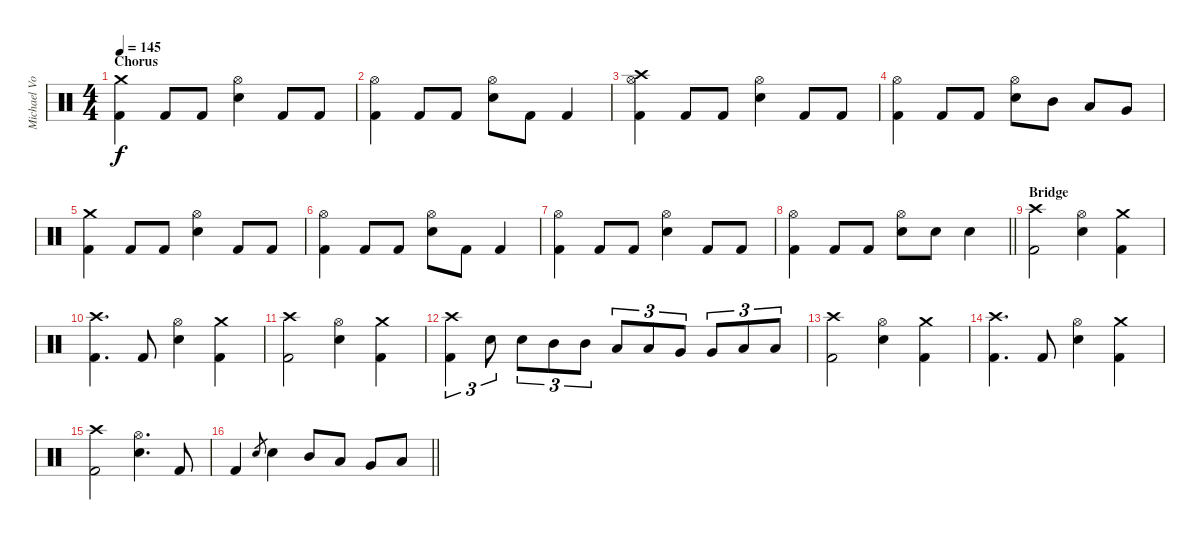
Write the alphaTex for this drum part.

\track ("Michael Von Knorring" "Michael Vo") {instrument percussion}
\staff {score}
\articulation defaults
\ts (4 4)
\section ("" "Chorus")
\tempo 145
\clef neutral
\ks c
("Crash medium (hit)" "Kick (hit) 2").4{dy f} "Kick (hit) 2".8 "Kick (hit) 2".8 ("Hi-Hat (open)" "Snare (hit) 2").4 "Kick (hit) 2".8 "Kick (hit) 2".8 |
("Hi-Hat (open)" "Kick (hit) 2").4 "Kick (hit) 2".8 "Kick (hit) 2".8 ("Hi-Hat (open)" "Snare (hit) 2").8 "Kick (hit) 2".8 "Kick (hit) 2".4 |
("Crash high (hit)" "Hi-Hat (open)" "Kick (hit) 2").4 "Kick (hit) 2".8 "Kick (hit) 2".8 ("Hi-Hat (open)" "Snare (hit) 2").4 "Kick (hit) 2".8 "Kick (hit) 2".8 |
("Hi-Hat (open)" "Kick (hit) 2").4 "Kick (hit) 2".8 "Kick (hit) 2".8 ("Hi-Hat (open)" "Snare (hit) 2").8 "Mid Tom (hit)".8 "Low Tom (hit)".8 "Very Low Tom (hit)".8 |
("Crash medium (hit)" "Kick (hit) 2").4 "Kick (hit) 2".8 "Kick (hit) 2".8 ("Hi-Hat (open)" "Snare (hit) 2").4 "Kick (hit) 2".8 "Kick (hit) 2".8 |
("Hi-Hat (open)" "Kick (hit) 2").4 "Kick (hit) 2".8 "Kick (hit) 2".8 ("Hi-Hat (open)" "Snare (hit) 2").8 "Kick (hit) 2".8 "Kick (hit) 2".4 |
("Hi-Hat (open)" "Kick (hit) 2").4 "Kick (hit) 2".8 "Kick (hit) 2".8 ("Hi-Hat (open)" "Snare (hit) 2").4 "Kick (hit) 2".8 "Kick (hit) 2".8 |
\barLineRight lightlight
("Hi-Hat (open)" "Kick (hit) 2").4 "Kick (hit) 2".8 "Kick (hit) 2".8 ("Hi-Hat (open)" "Snare (hit) 2").8 "Snare (hit) 2".8 "Snare (hit) 2".4 |
\section ("" "Bridge")
("Crash high (hit)" "Kick (hit) 2").2 ("Hi-Hat (open)" "Snare (hit) 2").4 ("Crash medium (hit)" "Kick (hit) 2").4 |
("Crash high (hit)" "Kick (hit) 2").4{d} "Kick (hit) 2".8 ("Hi-Hat (open)" "Snare (hit) 2").4 ("Crash medium (hit)" "Kick (hit) 2").4 |
("Crash high (hit)" "Kick (hit) 2").2 ("Hi-Hat (open)" "Snare (hit) 2").4 ("Crash medium (hit)" "Kick (hit) 2").4 |
("Crash high (hit)" "Kick (hit) 2").4{tu (3 2)} "Snare (hit) 2".8{tu (3 2)} "Snare (hit) 2".8{tu (3 2)} "Mid Tom (hit)".8{tu (3 2)} "Mid Tom (hit)".8{tu (3 2)} "Low Tom (hit)".8{tu (3 2)} "Low Tom (hit)".8{tu (3 2)} "Very Low Tom (hit)".8{tu (3 2)} "Very Low Tom (hit)".8{tu (3 2)} "Low Floor Tom (hit)".8{tu (3 2)} "Low Floor Tom (hit)".8{tu (3 2)} |
("Crash high (hit)" "Kick (hit) 2").2 ("Hi-Hat (open)" "Snare (hit) 2").4 ("Crash medium (hit)" "Kick (hit) 2").4 |
("Crash high (hit)" "Kick (hit) 2").4{d} "Kick (hit) 2".8 ("Hi-Hat (open)" "Snare (hit) 2").4 ("Crash medium (hit)" "Kick (hit) 2").4 |
("Crash high (hit)" "Kick (hit) 2").2 ("Hi-Hat (open)" "Snare (hit) 2").4{d} "Kick (hit) 2".8 |
\barLineRight lightlight "Kick (hit) 2".4 "Snare (hit) 2".8{gr} "Snare (hit) 2".4 "Mid Tom (hit)".8 "Low Tom (hit)".8 "Very Low Tom (hit)".8 "Low Floor Tom (hit)".8
